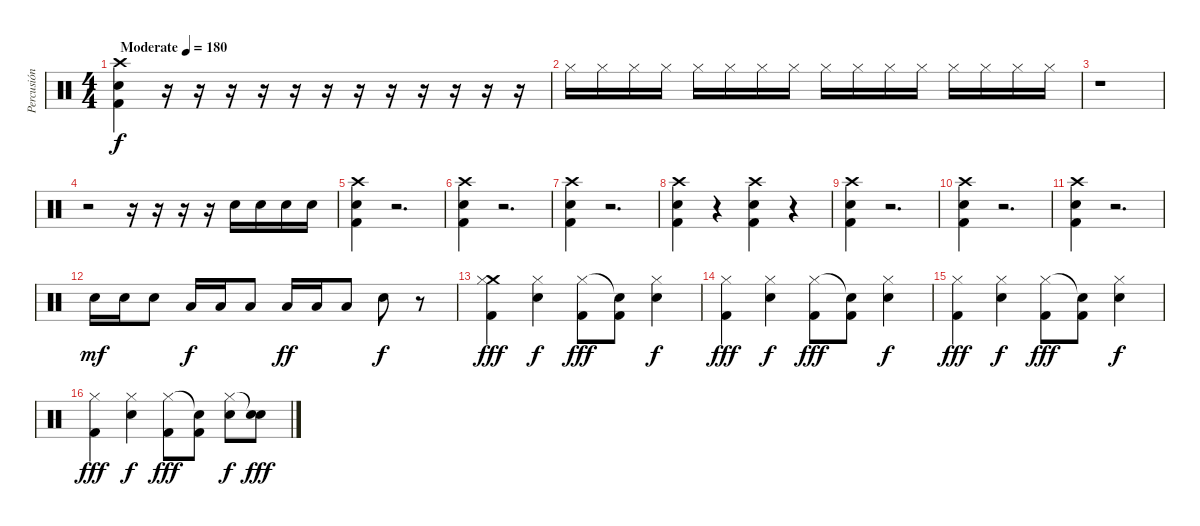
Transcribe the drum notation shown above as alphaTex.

\track ("Percusión" "Percusión") {instrument percussion}
\staff {score}
\articulation defaults
\ts (4 4)
\tempo (180 "Moderate")
\clef neutral
\ks c
("Kick (hit) 2" "Snare (hit) 2" "Crash high (hit)").4{dy f} r.16 r.16 r.16 r.16 r.16 r.16 r.16 r.16 r.16 r.16 r.16 r.16{volume 0} |
"Hi-Hat (closed)".16{volume 16} "Hi-Hat (closed)".16 "Hi-Hat (closed)".16 "Hi-Hat (closed)".16 "Hi-Hat (closed)".16 "Hi-Hat (closed)".16 "Hi-Hat (closed)".16 "Hi-Hat (closed)".16 "Hi-Hat (closed)".16{volume 0} "Hi-Hat (closed)".16 "Hi-Hat (closed)".16 "Hi-Hat (closed)".16 "Hi-Hat (closed)".16 "Hi-Hat (closed)".16 "Hi-Hat (closed)".16 "Hi-Hat (closed)".16 |
r.1 |
r.2{volume 16} r.16 r.16 r.16 r.16 "Snare (hit) 2".16 "Snare (hit) 2".16 "Snare (hit) 2".16 "Snare (hit) 2".16 |
("Kick (hit) 2" "Snare (hit) 2" "Crash high (hit)").4 r.2{d} |
("Kick (hit) 2" "Snare (hit) 2" "Crash high (hit)").4 r.2{d} |
("Kick (hit) 2" "Snare (hit) 2" "Crash high (hit)").4 r.2{d} |
("Kick (hit) 2" "Snare (hit) 2" "Crash high (hit)").4 r.4 ("Kick (hit) 2" "Snare (hit) 2" "Crash high (hit)").4 r.4 |
("Kick (hit) 2" "Snare (hit) 2" "Crash high (hit)").4 r.2{d} |
("Kick (hit) 2" "Snare (hit) 2" "Crash high (hit)").4 r.2{d} |
("Kick (hit) 2" "Snare (hit) 2" "Crash high (hit)").4 r.2{d} |
"Snare (hit) 2".16{dy mf} "Snare (hit) 2".16 "Snare (hit) 2".8 "Low Tom (hit)".16{dy f} "Low Tom (hit)".16 "Low Tom (hit)".8 "Low Floor Tom (hit)".16{dy ff} "Low Floor Tom (hit)".16 "Low Floor Tom (hit)".8 "Snare (hit) 2".8{dy f} r.8 |
("Crash medium (hit)" "Hi-Hat (closed)" "Kick (hit) 2").4{dy fff} ("Snare (hit) 2" "Hi-Hat (closed)").4{dy f} ("Hi-Hat (closed)" "Kick (hit) 2").8{dy fff} ("Snare (hit)"{t} "Kick (hit) 2").8 ("Snare (hit) 2" "Hi-Hat (closed)").4{dy f} |
("Hi-Hat (closed)" "Kick (hit) 2").4{dy fff} ("Snare (hit) 2" "Hi-Hat (closed)").4{dy f} ("Hi-Hat (closed)" "Kick (hit) 2").8{dy fff} ("Snare (hit)"{t} "Kick (hit) 2").8 ("Snare (hit) 2" "Hi-Hat (closed)").4{dy f} |
("Hi-Hat (closed)" "Kick (hit) 2").4{dy fff} ("Snare (hit) 2" "Hi-Hat (closed)").4{dy f} ("Hi-Hat (closed)" "Kick (hit) 2").8{dy fff} ("Snare (hit)"{t} "Kick (hit) 2").8 ("Snare (hit) 2" "Hi-Hat (closed)").4{dy f} |
("Hi-Hat (closed)" "Kick (hit) 2").4{dy fff} ("Snare (hit) 2" "Hi-Hat (closed)").4{dy f} ("Hi-Hat (closed)" "Kick (hit) 2").8{dy fff} ("Snare (hit)"{t} "Kick (hit) 2").8 ("Snare (hit) 2" "Hi-Hat (closed)").8{dy f} ("Snare (hit) 2" "Snare (hit)"{t}).8{dy fff}
